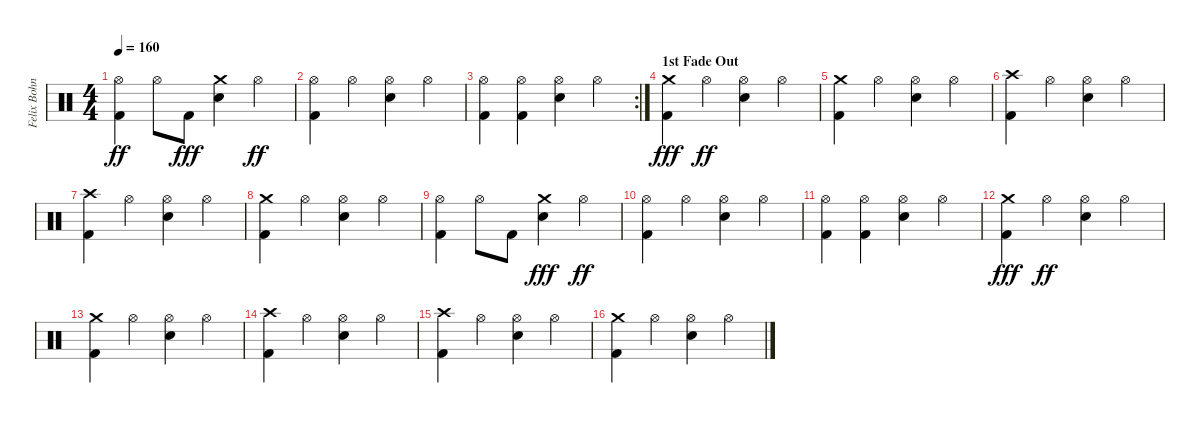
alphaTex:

\track ("Felix Bohnke" "Felix Bohn") {instrument percussion}
\staff {score}
\articulation defaults
\ts (4 4)
\tempo 160
\clef neutral
\ks c
("Kick (hit) 2" "Hi-Hat (open)").4{dy ff} "Hi-Hat (open)".8 "Kick (hit) 2".8{dy fff} ("Snare (hit) 2" "Crash medium (hit)").4 "Hi-Hat (open)".4{dy ff} |
("Kick (hit) 2" "Hi-Hat (open)").4 "Hi-Hat (open)".4 ("Snare (hit) 2" "Hi-Hat (open)").4 "Hi-Hat (open)".4 |
\rc 2
("Kick (hit) 2" "Hi-Hat (open)").4 ("Kick (hit) 2" "Hi-Hat (open)").4 ("Snare (hit) 2" "Hi-Hat (open)").4 "Hi-Hat (open)".4 |
\section ("" "1st Fade Out")
("Kick (hit) 2" "Crash medium (hit)").4{dy fff volume 16} "Hi-Hat (open)".4{dy ff} ("Snare (hit) 2" "Hi-Hat (open)").4 "Hi-Hat (open)".4 |
("Kick (hit) 2" "Crash medium (hit)").4{volume 15} "Hi-Hat (open)".4 ("Snare (hit) 2" "Hi-Hat (open)").4 "Hi-Hat (open)".4 |
("Kick (hit) 2" "Crash high (hit)").4{volume 14} "Hi-Hat (open)".4 ("Snare (hit) 2" "Hi-Hat (open)").4 "Hi-Hat (open)".4 |
("Kick (hit) 2" "Crash high (hit)").4{volume 13} "Hi-Hat (open)".4 ("Snare (hit) 2" "Hi-Hat (open)").4 "Hi-Hat (open)".4 |
("Kick (hit) 2" "Crash medium (hit)").4{volume 12} "Hi-Hat (open)".4 ("Snare (hit) 2" "Hi-Hat (open)").4 "Hi-Hat (open)".4 |
("Kick (hit) 2" "Hi-Hat (open)").4{volume 11} "Hi-Hat (open)".8 "Kick (hit) 2".8 ("Snare (hit) 2" "Crash medium (hit)").4{dy fff} "Hi-Hat (open)".4{dy ff} |
("Kick (hit) 2" "Hi-Hat (open)").4{volume 10} "Hi-Hat (open)".4 ("Snare (hit) 2" "Hi-Hat (open)").4 "Hi-Hat (open)".4 |
("Kick (hit) 2" "Hi-Hat (open)").4{volume 9} ("Kick (hit) 2" "Hi-Hat (open)").4 ("Snare (hit) 2" "Hi-Hat (open)").4 "Hi-Hat (open)".4 |
("Kick (hit) 2" "Crash medium (hit)").4{dy fff volume 8} "Hi-Hat (open)".4{dy ff} ("Snare (hit) 2" "Hi-Hat (open)").4 "Hi-Hat (open)".4 |
("Kick (hit) 2" "Crash medium (hit)").4{volume 7} "Hi-Hat (open)".4 ("Snare (hit) 2" "Hi-Hat (open)").4 "Hi-Hat (open)".4 |
("Kick (hit) 2" "Crash high (hit)").4{volume 6} "Hi-Hat (open)".4 ("Snare (hit) 2" "Hi-Hat (open)").4 "Hi-Hat (open)".4 |
("Kick (hit) 2" "Crash high (hit)").4{volume 5} "Hi-Hat (open)".4 ("Snare (hit) 2" "Hi-Hat (open)").4 "Hi-Hat (open)".4 |
("Kick (hit) 2" "Crash medium (hit)").4{volume 4} "Hi-Hat (open)".4 ("Snare (hit) 2" "Hi-Hat (open)").4 "Hi-Hat (open)".4
